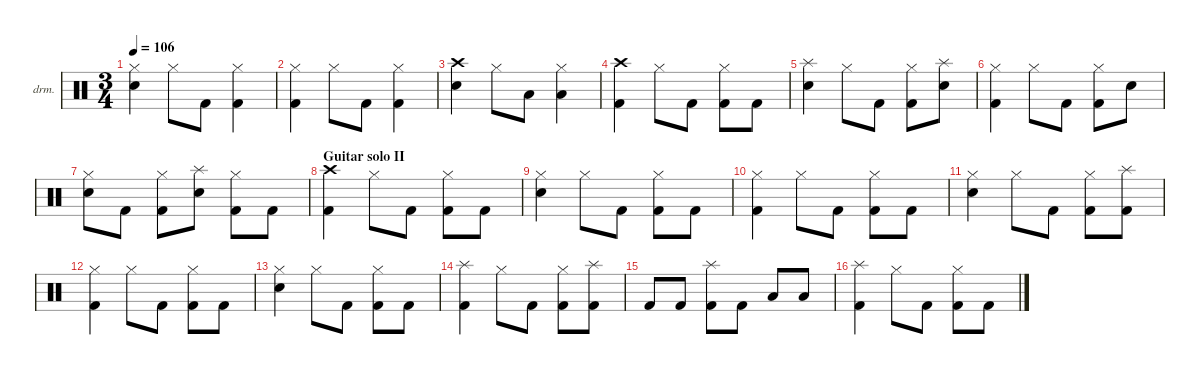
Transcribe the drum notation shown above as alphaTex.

\defaultSystemsLayout 4
\hideDynamics
\bracketExtendMode nobrackets
\firstSystemTrackNameOrientation horizontal
\otherSystemsTrackNameOrientation horizontal
\track ("Lars Ulrich" "drm.") {instrument percussion}
\staff {score}
\articulation defaults
\ts (3 4)
\tempo 106
\clef neutral
\ks c
("Hi-Hat (closed)" "Snare (hit) 2").4{dy f} "Hi-Hat (closed)".8 "Kick (hit) 2".8 ("Hi-Hat (closed)" "Kick (hit) 2").4 |
("Hi-Hat (closed)" "Kick (hit) 2").4 "Hi-Hat (closed)".8 "Kick (hit) 2".8 ("Hi-Hat (closed)" "Kick (hit) 2").4 |
("Crash high (hit)" "Snare (hit) 2").4 "Hi-Hat (closed)".8 "Low Tom (hit)".8 ("Hi-Hat (closed)" "Low Tom (hit)").4 |
("Crash high (hit)" "Kick (hit) 2").4 "Hi-Hat (closed)".8 "Kick (hit) 2".8 ("Hi-Hat (closed)" "Kick (hit) 2").8 "Kick (hit) 2".8 |
("Splash (hit)" "Snare (hit) 2").4{dy fff} "Hi-Hat (closed)".8{dy f} "Kick (hit) 2".8 ("Hi-Hat (closed)" "Kick (hit) 2").8 ("Splash (hit)" "Snare (hit) 2").8{dy fff} |
("Hi-Hat (closed)" "Kick (hit) 2").4{dy f} "Hi-Hat (closed)".8 "Kick (hit) 2".8 ("Hi-Hat (closed)" "Kick (hit) 2").8 "Snare (hit) 2".8 |
("Hi-Hat (closed)" "Snare (hit) 2").8 "Kick (hit) 2".8 ("Hi-Hat (closed)" "Kick (hit) 2").8 ("Splash (hit)" "Snare (hit) 2").8{dy fff} ("Hi-Hat (closed)" "Kick (hit) 2").8{dy f} "Kick (hit) 2".8 |
\section ("" "Guitar solo II")
("Crash high (hit)" "Kick (hit) 2").4 "Hi-Hat (closed)".8 "Kick (hit) 2".8 ("Hi-Hat (closed)" "Kick (hit) 2").8 "Kick (hit) 2".8 |
("Hi-Hat (closed)" "Snare (hit) 2").4 "Hi-Hat (closed)".8 "Kick (hit) 2".8 ("Hi-Hat (closed)" "Kick (hit) 2").8 "Kick (hit) 2".8 |
("Hi-Hat (closed)" "Kick (hit) 2").4 "Hi-Hat (closed)".8 "Kick (hit) 2".8 ("Hi-Hat (closed)" "Kick (hit) 2").8 "Kick (hit) 2".8 |
("Hi-Hat (closed)" "Snare (hit) 2").4 "Hi-Hat (closed)".8 "Kick (hit) 2".8 ("Hi-Hat (closed)" "Kick (hit) 2").8 ("Splash (hit)" "Kick (hit) 2").8{dy fff} |
("Hi-Hat (closed)" "Kick (hit) 2").4{dy f} "Hi-Hat (closed)".8 "Kick (hit) 2".8 ("Hi-Hat (closed)" "Kick (hit) 2").8 "Kick (hit) 2".8 |
("Hi-Hat (closed)" "Snare (hit) 2").4 "Hi-Hat (closed)".8 "Kick (hit) 2".8 ("Hi-Hat (closed)" "Kick (hit) 2").8 "Kick (hit) 2".8 |
("Splash (hit)" "Kick (hit) 2").4{dy fff} "Hi-Hat (closed)".8{dy f} "Kick (hit) 2".8 ("Hi-Hat (closed)" "Kick (hit) 2").8 ("Splash (hit)" "Kick (hit) 2").8{dy fff} |
"Kick (hit) 2".8{dy f} "Kick (hit) 2".8 ("Splash (hit)" "Kick (hit) 2").8{dy fff} "Kick (hit) 2".8{dy f} "Low Tom (hit)".8 "Low Tom (hit)".8 |
("Splash (hit)" "Kick (hit) 2").4{dy fff} "Hi-Hat (closed)".8{dy f} "Kick (hit) 2".8 ("Hi-Hat (closed)" "Kick (hit) 2").8 "Kick (hit) 2".8
